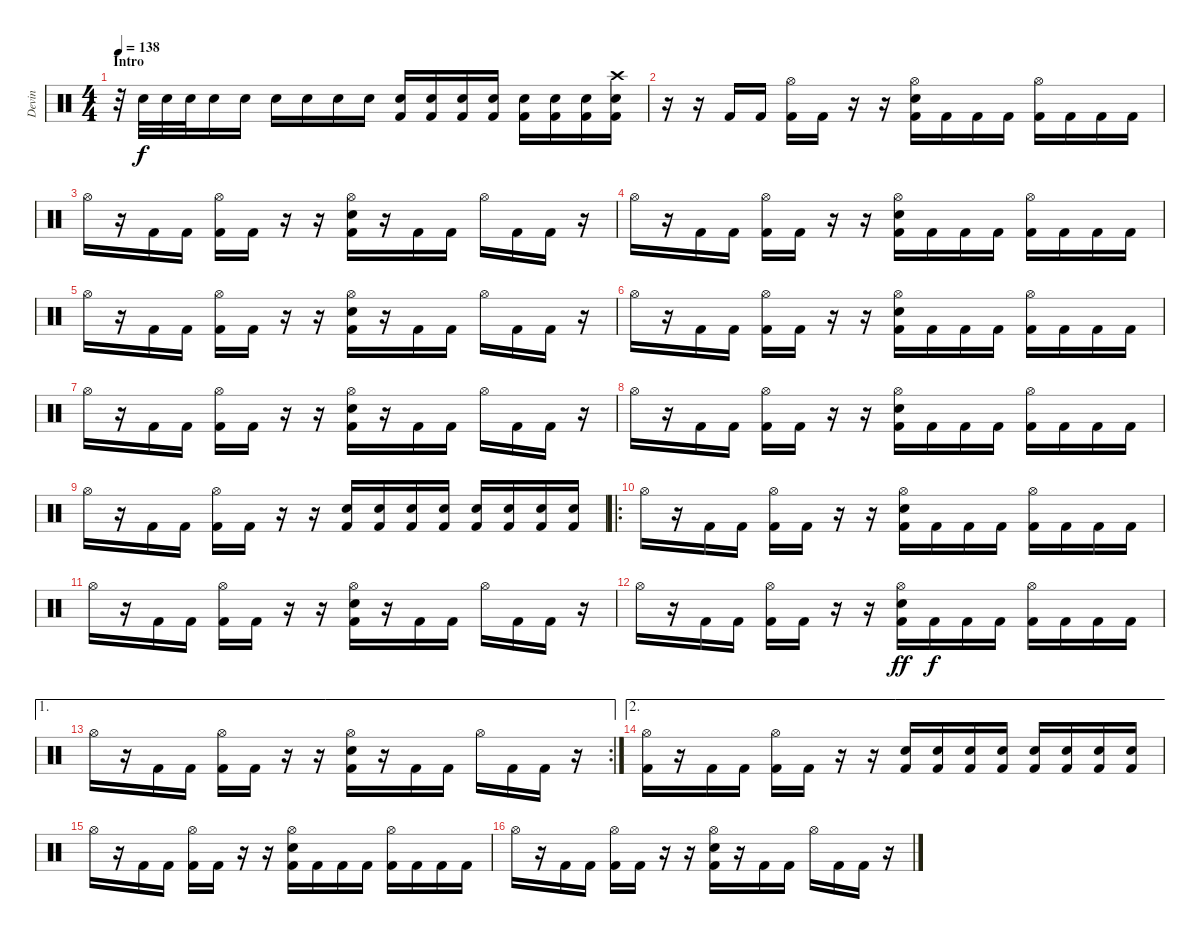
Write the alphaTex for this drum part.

\track ("Devin" "Devin") {instrument percussion}
\staff {score}
\articulation defaults
\ts (4 4)
\section ("" "Intro")
\tempo 138
\clef neutral
\ks c
r.32{dy f} "Electric Snare (hit)".32 "Electric Snare (hit)".32 "Electric Snare (hit)".32 "Electric Snare (hit)".16 "Electric Snare (hit)".16 "Electric Snare (hit)".16 "Electric Snare (hit)".16 "Electric Snare (hit)".16 "Electric Snare (hit)".16 ("Electric Snare (hit)" "Kick (hit) 2").16 ("Electric Snare (hit)" "Kick (hit) 2").16 ("Electric Snare (hit)" "Kick (hit) 2").16 ("Electric Snare (hit)" "Kick (hit) 2").16 ("Electric Snare (hit)" "Kick (hit) 2").16 ("Electric Snare (hit)" "Kick (hit) 2").16 ("Electric Snare (hit)" "Kick (hit) 2").16 ("Crash high (hit)" "Electric Snare (hit)" "Kick (hit) 2").16 |
r.16 r.16 "Kick (hit) 2".16 "Kick (hit) 2".16 ("Hi-Hat (open)" "Kick (hit) 2").16 "Kick (hit) 2".16 r.16 r.16 ("Hi-Hat (open)" "Electric Snare (hit)" "Kick (hit) 2").16 "Kick (hit) 2".16 "Kick (hit) 2".16 "Kick (hit) 2".16 ("Hi-Hat (open)" "Kick (hit) 2").16 "Kick (hit) 2".16 "Kick (hit) 2".16 "Kick (hit) 2".16 |
"Hi-Hat (open)".16 r.16 "Kick (hit) 2".16 "Kick (hit) 2".16 ("Hi-Hat (open)" "Kick (hit) 2").16 "Kick (hit) 2".16 r.16 r.16 ("Hi-Hat (open)" "Electric Snare (hit)" "Kick (hit) 2").16 r.16 "Kick (hit) 2".16 "Kick (hit) 2".16 "Hi-Hat (open)".16 "Kick (hit) 2".16 "Kick (hit) 2".16 r.16 |
"Hi-Hat (open)".16 r.16 "Kick (hit) 2".16 "Kick (hit) 2".16 ("Hi-Hat (open)" "Kick (hit) 2").16 "Kick (hit) 2".16 r.16 r.16 ("Hi-Hat (open)" "Electric Snare (hit)" "Kick (hit) 2").16 "Kick (hit) 2".16 "Kick (hit) 2".16 "Kick (hit) 2".16 ("Hi-Hat (open)" "Kick (hit) 2").16 "Kick (hit) 2".16 "Kick (hit) 2".16 "Kick (hit) 2".16 |
"Hi-Hat (open)".16 r.16 "Kick (hit) 2".16 "Kick (hit) 2".16 ("Hi-Hat (open)" "Kick (hit) 2").16 "Kick (hit) 2".16 r.16 r.16 ("Hi-Hat (open)" "Electric Snare (hit)" "Kick (hit) 2").16 r.16 "Kick (hit) 2".16 "Kick (hit) 2".16 "Hi-Hat (open)".16 "Kick (hit) 2".16 "Kick (hit) 2".16 r.16 |
"Hi-Hat (open)".16 r.16 "Kick (hit) 2".16 "Kick (hit) 2".16 ("Hi-Hat (open)" "Kick (hit) 2").16 "Kick (hit) 2".16 r.16 r.16 ("Hi-Hat (open)" "Electric Snare (hit)" "Kick (hit) 2").16 "Kick (hit) 2".16 "Kick (hit) 2".16 "Kick (hit) 2".16 ("Hi-Hat (open)" "Kick (hit) 2").16 "Kick (hit) 2".16 "Kick (hit) 2".16 "Kick (hit) 2".16 |
"Hi-Hat (open)".16 r.16 "Kick (hit) 2".16 "Kick (hit) 2".16 ("Hi-Hat (open)" "Kick (hit) 2").16 "Kick (hit) 2".16 r.16 r.16 ("Hi-Hat (open)" "Electric Snare (hit)" "Kick (hit) 2").16 r.16 "Kick (hit) 2".16 "Kick (hit) 2".16 "Hi-Hat (open)".16 "Kick (hit) 2".16 "Kick (hit) 2".16 r.16 |
"Hi-Hat (open)".16 r.16 "Kick (hit) 2".16 "Kick (hit) 2".16 ("Hi-Hat (open)" "Kick (hit) 2").16 "Kick (hit) 2".16 r.16 r.16 ("Hi-Hat (open)" "Electric Snare (hit)" "Kick (hit) 2").16 "Kick (hit) 2".16 "Kick (hit) 2".16 "Kick (hit) 2".16 ("Hi-Hat (open)" "Kick (hit) 2").16 "Kick (hit) 2".16 "Kick (hit) 2".16 "Kick (hit) 2".16 |
"Hi-Hat (open)".16 r.16 "Kick (hit) 2".16 "Kick (hit) 2".16 ("Hi-Hat (open)" "Kick (hit) 2").16 "Kick (hit) 2".16 r.16 r.16 ("Electric Snare (hit)" "Kick (hit) 2").16 ("Electric Snare (hit)" "Kick (hit) 2").16 ("Electric Snare (hit)" "Kick (hit) 2").16 ("Electric Snare (hit)" "Kick (hit) 2").16 ("Electric Snare (hit)" "Kick (hit) 2").16 ("Electric Snare (hit)" "Kick (hit) 2").16 ("Electric Snare (hit)" "Kick (hit) 2").16 ("Electric Snare (hit)" "Kick (hit) 2").16 |
\ro "Hi-Hat (open)".16
r.16 "Kick (hit) 2".16 "Kick (hit) 2".16 ("Hi-Hat (open)" "Kick (hit) 2").16 "Kick (hit) 2".16 r.16 r.16 ("Hi-Hat (open)" "Electric Snare (hit)" "Kick (hit) 2").16 "Kick (hit) 2".16 "Kick (hit) 2".16 "Kick (hit) 2".16 ("Hi-Hat (open)" "Kick (hit) 2").16 "Kick (hit) 2".16 "Kick (hit) 2".16 "Kick (hit) 2".16 |
"Hi-Hat (open)".16 r.16 "Kick (hit) 2".16 "Kick (hit) 2".16 ("Hi-Hat (open)" "Kick (hit) 2").16 "Kick (hit) 2".16 r.16 r.16 ("Hi-Hat (open)" "Electric Snare (hit)" "Kick (hit) 2").16 r.16 "Kick (hit) 2".16 "Kick (hit) 2".16 "Hi-Hat (open)".16 "Kick (hit) 2".16 "Kick (hit) 2".16 r.16 |
"Hi-Hat (open)".16 r.16 "Kick (hit) 2".16 "Kick (hit) 2".16 ("Hi-Hat (open)" "Kick (hit) 2").16 "Kick (hit) 2".16 r.16 r.16 ("Hi-Hat (open)" "Electric Snare (hit)" "Kick (hit) 2").16{dy ff} "Kick (hit) 2".16{dy f} "Kick (hit) 2".16 "Kick (hit) 2".16 ("Hi-Hat (open)" "Kick (hit) 2").16 "Kick (hit) 2".16 "Kick (hit) 2".16 "Kick (hit) 2".16 |
\ae 1
\rc 2 "Hi-Hat (open)".16
r.16 "Kick (hit) 2".16 "Kick (hit) 2".16 ("Hi-Hat (open)" "Kick (hit) 2").16 "Kick (hit) 2".16 r.16 r.16 ("Hi-Hat (open)" "Electric Snare (hit)" "Kick (hit) 2").16 r.16 "Kick (hit) 2".16 "Kick (hit) 2".16 "Hi-Hat (open)".16 "Kick (hit) 2".16 "Kick (hit) 2".16 r.16 |
\ae 2
("Hi-Hat (open)" "Kick (hit) 2").16 r.16 "Kick (hit) 2".16 "Kick (hit) 2".16 ("Hi-Hat (open)" "Kick (hit) 2").16 "Kick (hit) 2".16 r.16 r.16 ("Electric Snare (hit)" "Kick (hit) 2").16 ("Electric Snare (hit)" "Kick (hit) 2").16 ("Electric Snare (hit)" "Kick (hit) 2").16 ("Electric Snare (hit)" "Kick (hit) 2").16 ("Electric Snare (hit)" "Kick (hit) 2").16 ("Electric Snare (hit)" "Kick (hit) 2").16 ("Electric Snare (hit)" "Kick (hit) 2").16 ("Electric Snare (hit)" "Kick (hit) 2").16 |
"Hi-Hat (open)".16 r.16 "Kick (hit) 2".16 "Kick (hit) 2".16 ("Hi-Hat (open)" "Kick (hit) 2").16 "Kick (hit) 2".16 r.16 r.16 ("Hi-Hat (open)" "Electric Snare (hit)" "Kick (hit) 2").16 "Kick (hit) 2".16 "Kick (hit) 2".16 "Kick (hit) 2".16 ("Hi-Hat (open)" "Kick (hit) 2").16 "Kick (hit) 2".16 "Kick (hit) 2".16 "Kick (hit) 2".16 |
"Hi-Hat (open)".16 r.16 "Kick (hit) 2".16 "Kick (hit) 2".16 ("Hi-Hat (open)" "Kick (hit) 2").16 "Kick (hit) 2".16 r.16 r.16 ("Hi-Hat (open)" "Electric Snare (hit)" "Kick (hit) 2").16 r.16 "Kick (hit) 2".16 "Kick (hit) 2".16 "Hi-Hat (open)".16 "Kick (hit) 2".16 "Kick (hit) 2".16 r.16
